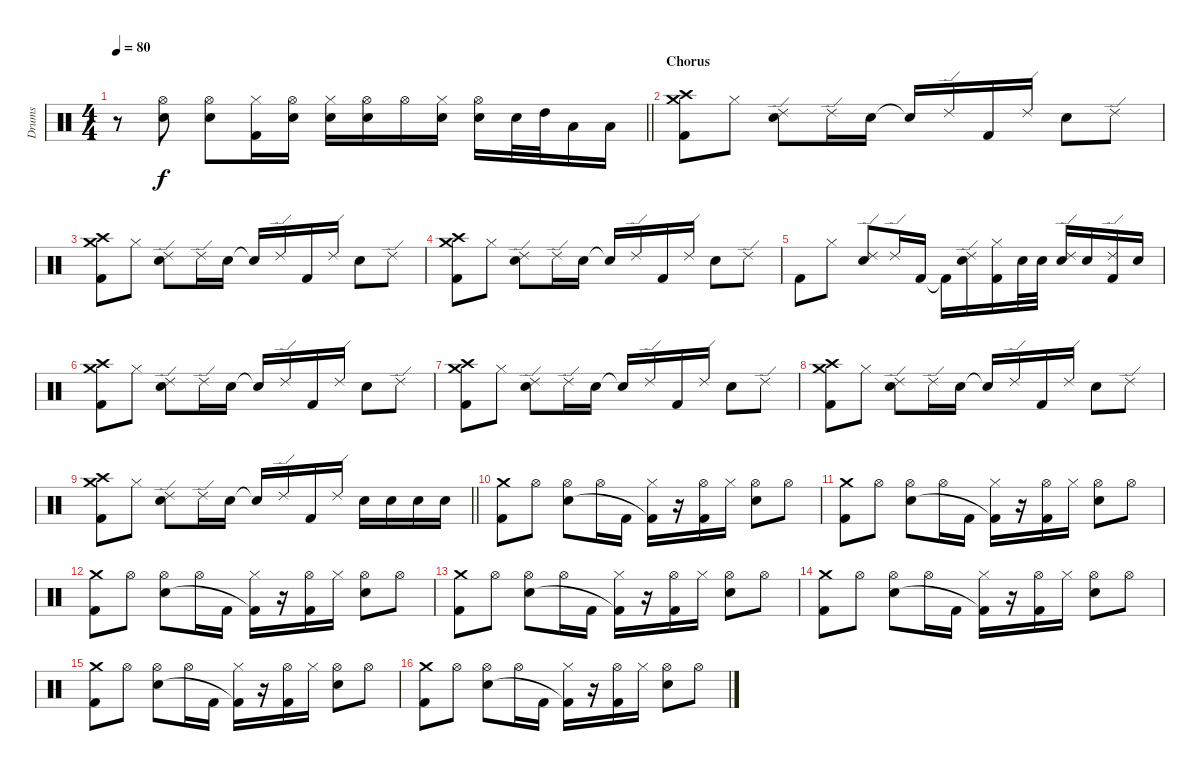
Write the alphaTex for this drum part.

\track ("Drums" "Drums") {instrument percussion}
\staff {score}
\articulation defaults
\ts (4 4)
\tempo 80
\clef neutral
\barLineRight lightlight
\ks c
r.8{dy f} ("Snare (hit) 2" "Hi-Hat (open)").8 ("Snare (hit) 2" "Hi-Hat (open)").8 ("Kick (hit) 2" "Hi-Hat (closed)").16 ("Snare (hit) 2" "Hi-Hat (open)").16 ("Snare (hit) 2" "Hi-Hat (closed)").16 ("Snare (hit) 2" "Hi-Hat (open)").16 "Hi-Hat (open)".16 ("Snare (hit) 2" "Hi-Hat (closed)").16 ("Snare (hit) 2" "Hi-Hat (open)").16 "Snare (hit) 2".32 "High Tom (hit)".32 "Low Tom (hit)".16 "Low Floor Tom (hit)".16 |
\section ("" "Chorus")
("Crash medium (hit)" "Crash high (hit)" "Kick (hit) 2").8 "Hi-Hat (closed)".8 ("Ride (edge) 2" "Snare (hit) 2").8 "Ride (edge) 2".16 "Snare (hit) 2".16 "Snare (hit) 2"{t}.16 "Ride (edge) 2".16 "Kick (hit) 2".16 "Ride (edge) 2".16 "Snare (hit) 2".8 "Ride (edge) 2".8 |
("Crash medium (hit)" "Crash high (hit)" "Kick (hit) 2").8 "Hi-Hat (closed)".8 ("Ride (edge) 2" "Snare (hit) 2").8 "Ride (edge) 2".16 "Snare (hit) 2".16 "Snare (hit) 2"{t}.16 "Ride (edge) 2".16 "Kick (hit) 2".16 "Ride (edge) 2".16 "Snare (hit) 2".8 "Ride (edge) 2".8 |
("Crash medium (hit)" "Crash high (hit)" "Kick (hit) 2").8 "Hi-Hat (closed)".8 ("Ride (edge) 2" "Snare (hit) 2").8 "Ride (edge) 2".16 "Snare (hit) 2".16 "Snare (hit) 2"{t}.16 "Ride (edge) 2".16 "Kick (hit) 2".16 "Ride (edge) 2".16 "Snare (hit) 2".8 "Ride (edge) 2".8 |
"Kick (hit) 2".8 "Hi-Hat (closed)".8 ("Ride (edge) 2" "Snare (hit) 2").8 "Ride (edge) 2".16 "Kick (hit) 2".16 "Kick (hit) 2"{t}.16 ("Snare (hit) 2" "Ride (edge) 2").16 ("Hi-Hat (closed)" "Kick (hit) 2").16 "Snare (hit) 2".32 "Snare (hit) 2".32 ("Snare (hit) 2" "Ride (edge) 2").16 "Snare (hit) 2".16 ("Ride (edge) 2" "Kick (hit) 2").16 "Snare (hit) 2".16 |
("Crash medium (hit)" "Crash high (hit)" "Kick (hit) 2").8 "Hi-Hat (closed)".8 ("Ride (edge) 2" "Snare (hit) 2").8 "Ride (edge) 2".16 "Snare (hit) 2".16 "Snare (hit) 2"{t}.16 "Ride (edge) 2".16 "Kick (hit) 2".16 "Ride (edge) 2".16 "Snare (hit) 2".8 "Ride (edge) 2".8 |
("Crash medium (hit)" "Crash high (hit)" "Kick (hit) 2").8 "Hi-Hat (closed)".8 ("Ride (edge) 2" "Snare (hit) 2").8 "Ride (edge) 2".16 "Snare (hit) 2".16 "Snare (hit) 2"{t}.16 "Ride (edge) 2".16 "Kick (hit) 2".16 "Ride (edge) 2".16 "Snare (hit) 2".8 "Ride (edge) 2".8 |
("Crash medium (hit)" "Crash high (hit)" "Kick (hit) 2").8 "Hi-Hat (closed)".8 ("Ride (edge) 2" "Snare (hit) 2").8 "Ride (edge) 2".16 "Snare (hit) 2".16 "Snare (hit) 2"{t}.16 "Ride (edge) 2".16 "Kick (hit) 2".16 "Ride (edge) 2".16 "Snare (hit) 2".8 "Ride (edge) 2".8 |
\barLineRight lightlight
("Crash medium (hit)" "Crash high (hit)" "Kick (hit) 2").8 "Hi-Hat (closed)".8 ("Ride (edge) 2" "Snare (hit) 2").8 "Ride (edge) 2".16 "Snare (hit) 2".16 "Snare (hit) 2"{t}.16 "Ride (edge) 2".16 "Kick (hit) 2".16 "Ride (edge) 2".16 "Snare (hit) 2".16 "Snare (hit) 2".16 "Snare (hit) 2".16 "Snare (hit) 2".16 |
("Crash medium (hit)" "Kick (hit) 2").8 "Hi-Hat (open)".8 ("Hi-Hat (open)" "Snare (hit) 2").8 "Hi-Hat (open)".16 "Kick (hit) 2".16 ("Hi-Hat (closed)" "Kick (hit) 2"{t}).16 r.16 ("Hi-Hat (open)" "Kick (hit) 2").16 "Hi-Hat (closed)".16 ("Hi-Hat (open)" "Snare (hit) 2").8 "Hi-Hat (open)".8 |
("Crash medium (hit)" "Kick (hit) 2").8 "Hi-Hat (open)".8 ("Hi-Hat (open)" "Snare (hit) 2").8 "Hi-Hat (open)".16 "Kick (hit) 2".16 ("Hi-Hat (closed)" "Kick (hit) 2"{t}).16 r.16 ("Hi-Hat (open)" "Kick (hit) 2").16 "Hi-Hat (closed)".16 ("Hi-Hat (open)" "Snare (hit) 2").8 "Hi-Hat (open)".8 |
("Crash medium (hit)" "Kick (hit) 2").8 "Hi-Hat (open)".8 ("Hi-Hat (open)" "Snare (hit) 2").8 "Hi-Hat (open)".16 "Kick (hit) 2".16 ("Hi-Hat (closed)" "Kick (hit) 2"{t}).16 r.16 ("Hi-Hat (open)" "Kick (hit) 2").16 "Hi-Hat (closed)".16 ("Hi-Hat (open)" "Snare (hit) 2").8 "Hi-Hat (open)".8 |
("Crash medium (hit)" "Kick (hit) 2").8 "Hi-Hat (open)".8 ("Hi-Hat (open)" "Snare (hit) 2").8 "Hi-Hat (open)".16 "Kick (hit) 2".16 ("Hi-Hat (closed)" "Kick (hit) 2"{t}).16 r.16 ("Hi-Hat (open)" "Kick (hit) 2").16 "Hi-Hat (closed)".16 ("Hi-Hat (open)" "Snare (hit) 2").8 "Hi-Hat (open)".8 |
("Crash medium (hit)" "Kick (hit) 2").8 "Hi-Hat (open)".8 ("Hi-Hat (open)" "Snare (hit) 2").8 "Hi-Hat (open)".16 "Kick (hit) 2".16 ("Hi-Hat (closed)" "Kick (hit) 2"{t}).16 r.16 ("Hi-Hat (open)" "Kick (hit) 2").16 "Hi-Hat (closed)".16 ("Hi-Hat (open)" "Snare (hit) 2").8 "Hi-Hat (open)".8 |
("Crash medium (hit)" "Kick (hit) 2").8 "Hi-Hat (open)".8 ("Hi-Hat (open)" "Snare (hit) 2").8 "Hi-Hat (open)".16 "Kick (hit) 2".16 ("Hi-Hat (closed)" "Kick (hit) 2"{t}).16 r.16 ("Hi-Hat (open)" "Kick (hit) 2").16 "Hi-Hat (closed)".16 ("Hi-Hat (open)" "Snare (hit) 2").8 "Hi-Hat (open)".8 |
("Crash medium (hit)" "Kick (hit) 2").8 "Hi-Hat (open)".8 ("Hi-Hat (open)" "Snare (hit) 2").8 "Hi-Hat (open)".16 "Kick (hit) 2".16 ("Hi-Hat (closed)" "Kick (hit) 2"{t}).16 r.16 ("Hi-Hat (open)" "Kick (hit) 2").16 "Hi-Hat (closed)".16 ("Hi-Hat (open)" "Snare (hit) 2").8 "Hi-Hat (open)".8
